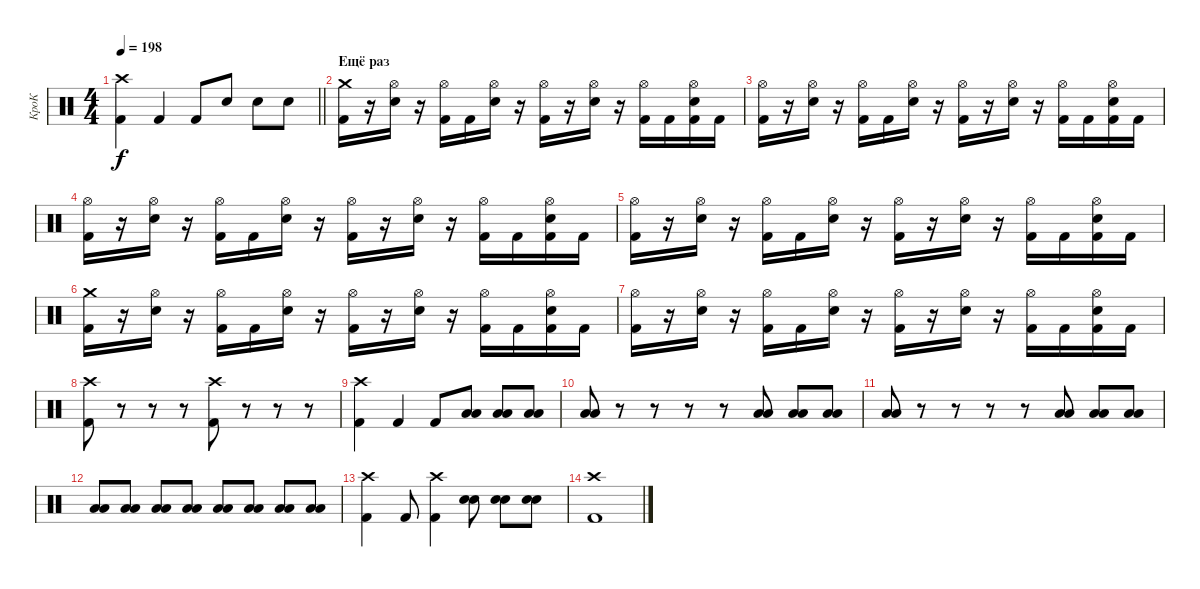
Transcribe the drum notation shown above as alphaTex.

\track ("КроК" "КроК") {instrument percussion}
\staff {score}
\articulation defaults
\ts (4 4)
\tempo 198
\clef neutral
\barLineRight lightlight
\ks c
("Kick (hit) 2" "Crash high (hit)").4{dy f} "Kick (hit) 2".4 "Kick (hit) 2".8 "Electric Snare (hit)".8 "Electric Snare (hit)".8 "Electric Snare (hit)".8 |
\section ("" "Ещё раз")
("Crash medium (hit)" "Kick (hit) 2").16 r.16 ("Hi-Hat (open)" "Electric Snare (hit)").16 r.16 ("Hi-Hat (open)" "Kick (hit) 2").16 "Kick (hit) 2".16 ("Hi-Hat (open)" "Electric Snare (hit)").16 r.16 ("Hi-Hat (open)" "Kick (hit) 2").16 r.16 ("Hi-Hat (open)" "Electric Snare (hit)").16 r.16 ("Hi-Hat (open)" "Kick (hit) 2").16 "Kick (hit) 2".16 ("Hi-Hat (open)" "Electric Snare (hit)" "Kick (hit) 2").16 "Kick (hit) 2".16 |
("Hi-Hat (open)" "Kick (hit) 2").16 r.16 ("Hi-Hat (open)" "Electric Snare (hit)").16 r.16 ("Hi-Hat (open)" "Kick (hit) 2").16 "Kick (hit) 2".16 ("Hi-Hat (open)" "Electric Snare (hit)").16 r.16 ("Hi-Hat (open)" "Kick (hit) 2").16 r.16 ("Hi-Hat (open)" "Electric Snare (hit)").16 r.16 ("Hi-Hat (open)" "Kick (hit) 2").16 "Kick (hit) 2".16 ("Hi-Hat (open)" "Electric Snare (hit)" "Kick (hit) 2").16 "Kick (hit) 2".16 |
("Hi-Hat (open)" "Kick (hit) 2").16 r.16 ("Hi-Hat (open)" "Electric Snare (hit)").16 r.16 ("Hi-Hat (open)" "Kick (hit) 2").16 "Kick (hit) 2".16 ("Hi-Hat (open)" "Electric Snare (hit)").16 r.16 ("Hi-Hat (open)" "Kick (hit) 2").16 r.16 ("Hi-Hat (open)" "Electric Snare (hit)").16 r.16 ("Hi-Hat (open)" "Kick (hit) 2").16 "Kick (hit) 2".16 ("Hi-Hat (open)" "Electric Snare (hit)" "Kick (hit) 2").16 "Kick (hit) 2".16 |
("Hi-Hat (open)" "Kick (hit) 2").16 r.16 ("Hi-Hat (open)" "Electric Snare (hit)").16 r.16 ("Hi-Hat (open)" "Kick (hit) 2").16 "Kick (hit) 2".16 ("Hi-Hat (open)" "Electric Snare (hit)").16 r.16 ("Hi-Hat (open)" "Kick (hit) 2").16 r.16 ("Hi-Hat (open)" "Electric Snare (hit)").16 r.16 ("Hi-Hat (open)" "Kick (hit) 2").16 "Kick (hit) 2".16 ("Hi-Hat (open)" "Electric Snare (hit)" "Kick (hit) 2").16 "Kick (hit) 2".16 |
("Crash medium (hit)" "Kick (hit) 2").16 r.16 ("Hi-Hat (open)" "Electric Snare (hit)").16 r.16 ("Hi-Hat (open)" "Kick (hit) 2").16 "Kick (hit) 2".16 ("Hi-Hat (open)" "Electric Snare (hit)").16 r.16 ("Hi-Hat (open)" "Kick (hit) 2").16 r.16 ("Hi-Hat (open)" "Electric Snare (hit)").16 r.16 ("Hi-Hat (open)" "Kick (hit) 2").16 "Kick (hit) 2".16 ("Hi-Hat (open)" "Electric Snare (hit)" "Kick (hit) 2").16 "Kick (hit) 2".16 |
("Hi-Hat (open)" "Kick (hit) 2").16 r.16 ("Hi-Hat (open)" "Electric Snare (hit)").16 r.16 ("Hi-Hat (open)" "Kick (hit) 2").16 "Kick (hit) 2".16 ("Hi-Hat (open)" "Electric Snare (hit)").16 r.16 ("Hi-Hat (open)" "Kick (hit) 2").16 r.16 ("Hi-Hat (open)" "Electric Snare (hit)").16 r.16 ("Hi-Hat (open)" "Kick (hit) 2").16 "Kick (hit) 2".16 ("Hi-Hat (open)" "Electric Snare (hit)" "Kick (hit) 2").16 "Kick (hit) 2".16 |
("Crash high (hit)" "Kick (hit) 2").8 r.8 r.8 r.8 ("Crash high (hit)" "Kick (hit) 2").8 r.8 r.8 r.8 |
("Kick (hit) 2" "Crash high (hit)").4 "Kick (hit) 2".4 "Kick (hit) 2".8 ("Low Tom (hit)" "Low Tom (hit)").8 ("Low Tom (hit)" "Low Tom (hit)").8 ("Low Tom (hit)" "Low Tom (hit)").8 |
("Low Floor Tom (hit)" "Low Floor Tom (hit)").8 r.8 r.8 r.8 r.8 ("Low Tom (hit)" "Low Tom (hit)").8 ("Low Tom (hit)" "Low Tom (hit)").8 ("Low Tom (hit)" "Low Tom (hit)").8 |
("Low Floor Tom (hit)" "Low Floor Tom (hit)").8 r.8 r.8 r.8 r.8 ("Low Tom (hit)" "Low Tom (hit)").8 ("Low Tom (hit)" "Low Tom (hit)").8 ("Low Tom (hit)" "Low Tom (hit)").8 |
("Low Floor Tom (hit)" "Low Floor Tom (hit)").8 ("Low Tom (hit)" "Low Tom (hit)").8 ("Low Tom (hit)" "Low Tom (hit)").8 ("Low Tom (hit)" "Low Tom (hit)").8 ("Low Floor Tom (hit)" "Low Floor Tom (hit)").8 ("Low Tom (hit)" "Low Tom (hit)").8 ("Low Tom (hit)" "Low Tom (hit)").8 ("Low Tom (hit)" "Low Tom (hit)").8 |
("Crash high (hit)" "Kick (hit) 2").4 "Kick (hit) 2".8 ("Crash high (hit)" "Kick (hit) 2").4 ("Electric Snare (hit)" "Electric Snare (hit)").8 ("Electric Snare (hit)" "Electric Snare (hit)").8 ("Electric Snare (hit)" "Electric Snare (hit)").8 |
("Crash high (hit)" "Kick (hit) 2").1
